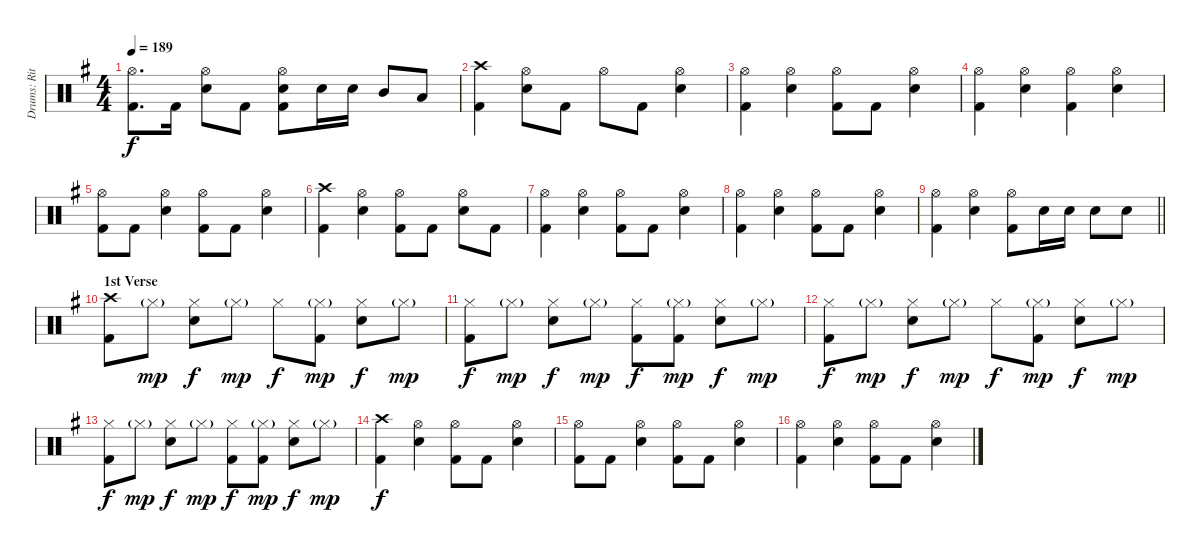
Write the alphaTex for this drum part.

\track ("Drums: Ritsu Tainaka" "Drums: Rit") {instrument percussion}
\staff {score}
\articulation defaults
\ts (4 4)
\tempo 189
\clef neutral
\ks g
("Hi-Hat (open)" "Kick (hit) 2").8{d dy f} "Kick (hit) 2".16 ("Hi-Hat (open)" "Electric Snare (hit)").8 "Kick (hit) 2".8 ("Hi-Hat (open)" "Electric Snare (hit)" "Kick (hit) 2").8 "Electric Snare (hit)".16 "Electric Snare (hit)".16 "Mid Tom (hit)".8 "Low Tom (hit)".8 |
("Crash high (hit)" "Kick (hit) 2").4 ("Hi-Hat (open)" "Electric Snare (hit)").8 "Kick (hit) 2".8 "Hi-Hat (open)".8 "Kick (hit) 2".8 ("Hi-Hat (open)" "Electric Snare (hit)").4 |
("Hi-Hat (open)" "Kick (hit) 2").4 ("Hi-Hat (open)" "Electric Snare (hit)").4 ("Hi-Hat (open)" "Kick (hit) 2").8 "Kick (hit) 2".8 ("Hi-Hat (open)" "Electric Snare (hit)").4 |
("Hi-Hat (open)" "Kick (hit) 2").4 ("Hi-Hat (open)" "Electric Snare (hit)").4 ("Hi-Hat (open)" "Kick (hit) 2").4 ("Hi-Hat (open)" "Electric Snare (hit)").4 |
("Hi-Hat (open)" "Kick (hit) 2").8 "Kick (hit) 2".8 ("Hi-Hat (open)" "Electric Snare (hit)").4 ("Hi-Hat (open)" "Kick (hit) 2").8 "Kick (hit) 2".8 ("Hi-Hat (open)" "Electric Snare (hit)").4 |
("Crash high (hit)" "Kick (hit) 2").4 ("Hi-Hat (open)" "Electric Snare (hit)").4 ("Hi-Hat (open)" "Kick (hit) 2").8 "Kick (hit) 2".8 ("Hi-Hat (open)" "Electric Snare (hit)").8 "Kick (hit) 2".8 |
("Hi-Hat (open)" "Kick (hit) 2").4 ("Hi-Hat (open)" "Electric Snare (hit)").4 ("Hi-Hat (open)" "Kick (hit) 2").8 "Kick (hit) 2".8 ("Hi-Hat (open)" "Electric Snare (hit)").4 |
("Hi-Hat (open)" "Kick (hit) 2").4 ("Hi-Hat (open)" "Electric Snare (hit)").4 ("Hi-Hat (open)" "Kick (hit) 2").8 "Kick (hit) 2".8 ("Hi-Hat (open)" "Electric Snare (hit)").4 |
\barLineRight lightlight
("Hi-Hat (open)" "Kick (hit) 2").4 ("Hi-Hat (open)" "Electric Snare (hit)").4 ("Hi-Hat (open)" "Kick (hit) 2").8 "Electric Snare (hit)".16 "Electric Snare (hit)".16 "Electric Snare (hit)".8 "Electric Snare (hit)".8 |
\section ("" "1st Verse")
("Crash high (hit)" "Kick (hit) 2").8 "Hi-Hat (closed)"{g}.8{dy mp} ("Hi-Hat (closed)" "Electric Snare (hit)").8{dy f} "Hi-Hat (closed)"{g}.8{dy mp} "Hi-Hat (closed)".8{dy f} ("Hi-Hat (closed)"{g} "Kick (hit) 2").8{dy mp} ("Hi-Hat (closed)" "Electric Snare (hit)").8{dy f} "Hi-Hat (closed)"{g}.8{dy mp} |
("Hi-Hat (closed)" "Kick (hit) 2").8{dy f} "Hi-Hat (closed)"{g}.8{dy mp} ("Hi-Hat (closed)" "Electric Snare (hit)").8{dy f} "Hi-Hat (closed)"{g}.8{dy mp} ("Hi-Hat (closed)" "Kick (hit) 2").8{dy f} ("Hi-Hat (closed)"{g} "Kick (hit) 2").8{dy mp} ("Hi-Hat (closed)" "Electric Snare (hit)").8{dy f} "Hi-Hat (closed)"{g}.8{dy mp} |
("Hi-Hat (closed)" "Kick (hit) 2").8{dy f} "Hi-Hat (closed)"{g}.8{dy mp} ("Hi-Hat (closed)" "Electric Snare (hit)").8{dy f} "Hi-Hat (closed)"{g}.8{dy mp} "Hi-Hat (closed)".8{dy f} ("Hi-Hat (closed)"{g} "Kick (hit) 2").8{dy mp} ("Hi-Hat (closed)" "Electric Snare (hit)").8{dy f} "Hi-Hat (closed)"{g}.8{dy mp} |
("Hi-Hat (closed)" "Kick (hit) 2").8{dy f} "Hi-Hat (closed)"{g}.8{dy mp} ("Hi-Hat (closed)" "Electric Snare (hit)").8{dy f} "Hi-Hat (closed)"{g}.8{dy mp} ("Hi-Hat (closed)" "Kick (hit) 2").8{dy f} ("Hi-Hat (closed)"{g} "Kick (hit) 2").8{dy mp} ("Hi-Hat (closed)" "Electric Snare (hit)").8{dy f} "Hi-Hat (closed)"{g}.8{dy mp} |
("Crash high (hit)" "Kick (hit) 2").4{dy f} ("Hi-Hat (open)" "Electric Snare (hit)").4 ("Hi-Hat (open)" "Kick (hit) 2").8 "Kick (hit) 2".8 ("Hi-Hat (open)" "Electric Snare (hit)").4 |
("Hi-Hat (open)" "Kick (hit) 2").8 "Kick (hit) 2".8 ("Hi-Hat (open)" "Electric Snare (hit)").4 ("Hi-Hat (open)" "Kick (hit) 2").8 "Kick (hit) 2".8 ("Hi-Hat (open)" "Electric Snare (hit)").4 |
("Hi-Hat (open)" "Kick (hit) 2").4 ("Hi-Hat (open)" "Electric Snare (hit)").4 ("Hi-Hat (open)" "Kick (hit) 2").8 "Kick (hit) 2".8 ("Hi-Hat (open)" "Electric Snare (hit)").4
